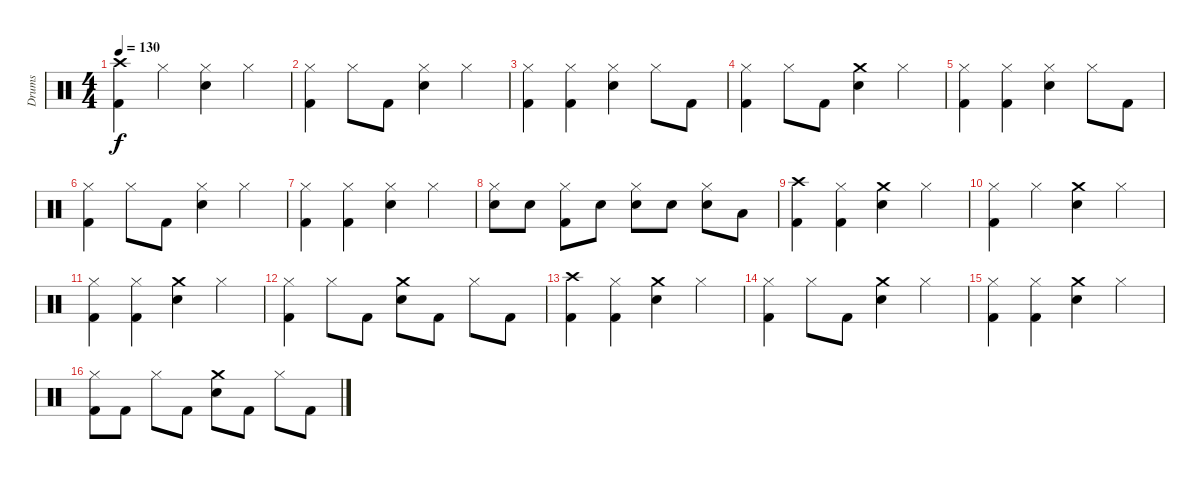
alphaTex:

\track ("Drums" "Drums") {instrument percussion}
\staff {score}
\articulation defaults
\ts (4 4)
\tempo 130
\clef neutral
\ks c
("Crash high (hit)" "Kick (hit) 2").4{dy f} "Hi-Hat (closed)".4 ("Hi-Hat (closed)" "Snare (hit) 2").4 "Hi-Hat (closed)".4 |
("Hi-Hat (closed)" "Kick (hit) 2").4 "Hi-Hat (closed)".8 "Kick (hit) 2".8 ("Hi-Hat (closed)" "Snare (hit) 2").4 "Hi-Hat (closed)".4 |
("Hi-Hat (closed)" "Kick (hit) 2").4 ("Hi-Hat (closed)" "Kick (hit) 2").4 ("Hi-Hat (closed)" "Snare (hit) 2").4 "Hi-Hat (closed)".8 "Kick (hit) 2".8 |
("Hi-Hat (closed)" "Kick (hit) 2").4 "Hi-Hat (closed)".8 "Kick (hit) 2".8 ("Crash medium (hit)" "Snare (hit) 2").4 "Hi-Hat (closed)".4 |
("Hi-Hat (closed)" "Kick (hit) 2").4 ("Hi-Hat (closed)" "Kick (hit) 2").4 ("Hi-Hat (closed)" "Snare (hit) 2").4 "Hi-Hat (closed)".8 "Kick (hit) 2".8 |
("Hi-Hat (closed)" "Kick (hit) 2").4 "Hi-Hat (closed)".8 "Kick (hit) 2".8 ("Hi-Hat (closed)" "Snare (hit) 2").4 "Hi-Hat (closed)".4 |
("Hi-Hat (closed)" "Kick (hit) 2").4 ("Hi-Hat (closed)" "Kick (hit) 2").4 ("Hi-Hat (closed)" "Snare (hit) 2").4 "Hi-Hat (closed)".4 |
("Hi-Hat (closed)" "Snare (hit) 2").8 "Snare (hit) 2".8 ("Hi-Hat (closed)" "Kick (hit) 2").8 "Snare (hit) 2".8 ("Hi-Hat (closed)" "Snare (hit) 2").8 "Snare (hit) 2".8 ("Hi-Hat (closed)" "Snare (hit) 2").8 "Low Tom (hit)".8 |
("Crash high (hit)" "Kick (hit) 2").4 ("Hi-Hat (closed)" "Kick (hit) 2").4 ("Crash medium (hit)" "Snare (hit) 2").4 "Hi-Hat (closed)".4 |
("Hi-Hat (closed)" "Kick (hit) 2").4 "Hi-Hat (closed)".4 ("Crash medium (hit)" "Snare (hit) 2").4 "Hi-Hat (closed)".4 |
("Hi-Hat (closed)" "Kick (hit) 2").4 ("Hi-Hat (closed)" "Kick (hit) 2").4 ("Crash medium (hit)" "Snare (hit) 2").4 "Hi-Hat (closed)".4 |
("Hi-Hat (closed)" "Kick (hit) 2").4 "Hi-Hat (closed)".8 "Kick (hit) 2".8 ("Crash medium (hit)" "Snare (hit) 2").8 "Kick (hit) 2".8 "Hi-Hat (closed)".8 "Kick (hit) 2".8 |
("Crash high (hit)" "Kick (hit) 2").4 ("Hi-Hat (closed)" "Kick (hit) 2").4 ("Crash medium (hit)" "Snare (hit) 2").4 "Hi-Hat (closed)".4 |
("Hi-Hat (closed)" "Kick (hit) 2").4 "Hi-Hat (closed)".8 "Kick (hit) 2".8 ("Crash medium (hit)" "Snare (hit) 2").4 "Hi-Hat (closed)".4 |
("Hi-Hat (closed)" "Kick (hit) 2").4 ("Hi-Hat (closed)" "Kick (hit) 2").4 ("Crash medium (hit)" "Snare (hit) 2").4 "Hi-Hat (closed)".4 |
("Hi-Hat (closed)" "Kick (hit) 2").8 "Kick (hit) 2".8 "Hi-Hat (closed)".8 "Kick (hit) 2".8 ("Crash medium (hit)" "Snare (hit) 2").8 "Kick (hit) 2".8 "Hi-Hat (closed)".8 "Kick (hit) 2".8
